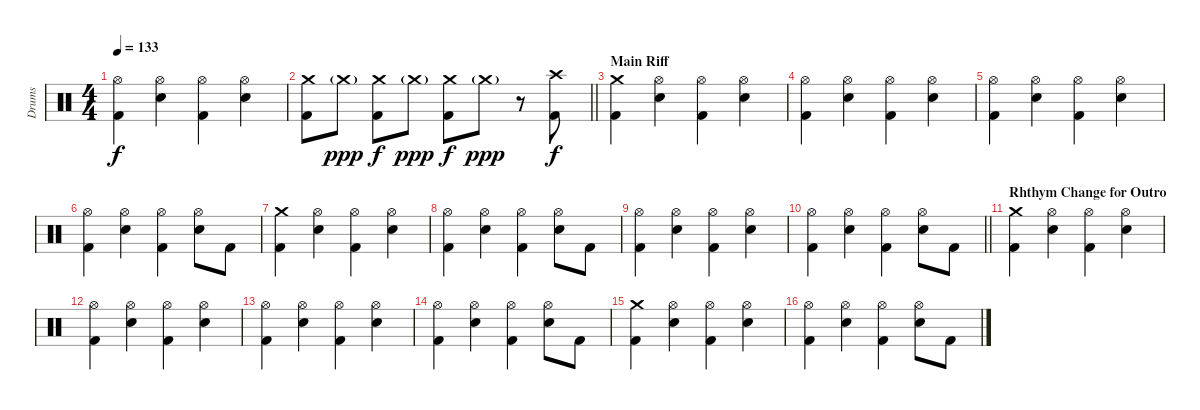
\track ("Drums" "Drums") {instrument percussion}
\staff {score}
\articulation defaults
\ts (4 4)
\tempo 133
\clef neutral
\ks c
("Hi-Hat (open)" "Kick (hit) 2").4{dy f} ("Hi-Hat (open)" "Snare (hit) 2").4 ("Hi-Hat (open)" "Kick (hit) 2").4 ("Hi-Hat (open)" "Snare (hit) 2").4 |
\barLineRight lightlight
("Crash medium (hit)" "Kick (hit) 2").8 "Crash medium (hit)"{g}.8{dy ppp} ("Crash medium (hit)" "Kick (hit) 2").8{dy f} "Crash medium (hit)"{g}.8{dy ppp} ("Crash medium (hit)" "Kick (hit) 2").8{dy f} "Crash medium (hit)"{g}.8{dy ppp} r.8 ("Crash high (hit)" "Kick (hit) 2").8{dy f} |
\section ("" "Main Riff")
("Crash medium (hit)" "Kick (hit) 2").4 ("Hi-Hat (open)" "Snare (hit) 2").4 ("Hi-Hat (open)" "Kick (hit) 2").4 ("Hi-Hat (open)" "Snare (hit) 2").4 |
("Hi-Hat (open)" "Kick (hit) 2").4 ("Hi-Hat (open)" "Snare (hit) 2").4 ("Hi-Hat (open)" "Kick (hit) 2").4 ("Hi-Hat (open)" "Snare (hit) 2").4 |
("Hi-Hat (open)" "Kick (hit) 2").4 ("Hi-Hat (open)" "Snare (hit) 2").4 ("Hi-Hat (open)" "Kick (hit) 2").4 ("Hi-Hat (open)" "Snare (hit) 2").4 |
("Hi-Hat (open)" "Kick (hit) 2").4 ("Hi-Hat (open)" "Snare (hit) 2").4 ("Hi-Hat (open)" "Kick (hit) 2").4 ("Hi-Hat (open)" "Snare (hit) 2").8 "Kick (hit) 2".8 |
("Crash medium (hit)" "Kick (hit) 2").4 ("Hi-Hat (open)" "Snare (hit) 2").4 ("Hi-Hat (open)" "Kick (hit) 2").4 ("Hi-Hat (open)" "Snare (hit) 2").4 |
("Hi-Hat (open)" "Kick (hit) 2").4 ("Hi-Hat (open)" "Snare (hit) 2").4 ("Hi-Hat (open)" "Kick (hit) 2").4 ("Hi-Hat (open)" "Snare (hit) 2").8 "Kick (hit) 2".8 |
("Hi-Hat (open)" "Kick (hit) 2").4 ("Hi-Hat (open)" "Snare (hit) 2").4 ("Hi-Hat (open)" "Kick (hit) 2").4 ("Hi-Hat (open)" "Snare (hit) 2").4 |
\barLineRight lightlight
("Hi-Hat (open)" "Kick (hit) 2").4 ("Hi-Hat (open)" "Snare (hit) 2").4 ("Hi-Hat (open)" "Kick (hit) 2").4 ("Hi-Hat (open)" "Snare (hit) 2").8 "Kick (hit) 2".8 |
\section ("" "Rhthym Change for Outro")
("Crash medium (hit)" "Kick (hit) 2").4 ("Hi-Hat (open)" "Snare (hit) 2").4 ("Hi-Hat (open)" "Kick (hit) 2").4 ("Hi-Hat (open)" "Snare (hit) 2").4 |
("Hi-Hat (open)" "Kick (hit) 2").4 ("Hi-Hat (open)" "Snare (hit) 2").4 ("Hi-Hat (open)" "Kick (hit) 2").4 ("Hi-Hat (open)" "Snare (hit) 2").4 |
("Hi-Hat (open)" "Kick (hit) 2").4 ("Hi-Hat (open)" "Snare (hit) 2").4 ("Hi-Hat (open)" "Kick (hit) 2").4 ("Hi-Hat (open)" "Snare (hit) 2").4 |
("Hi-Hat (open)" "Kick (hit) 2").4 ("Hi-Hat (open)" "Snare (hit) 2").4 ("Hi-Hat (open)" "Kick (hit) 2").4 ("Hi-Hat (open)" "Snare (hit) 2").8 "Kick (hit) 2".8 |
("Crash medium (hit)" "Kick (hit) 2").4 ("Hi-Hat (open)" "Snare (hit) 2").4 ("Hi-Hat (open)" "Kick (hit) 2").4 ("Hi-Hat (open)" "Snare (hit) 2").4 |
("Hi-Hat (open)" "Kick (hit) 2").4 ("Hi-Hat (open)" "Snare (hit) 2").4 ("Hi-Hat (open)" "Kick (hit) 2").4 ("Hi-Hat (open)" "Snare (hit) 2").8 "Kick (hit) 2".8
